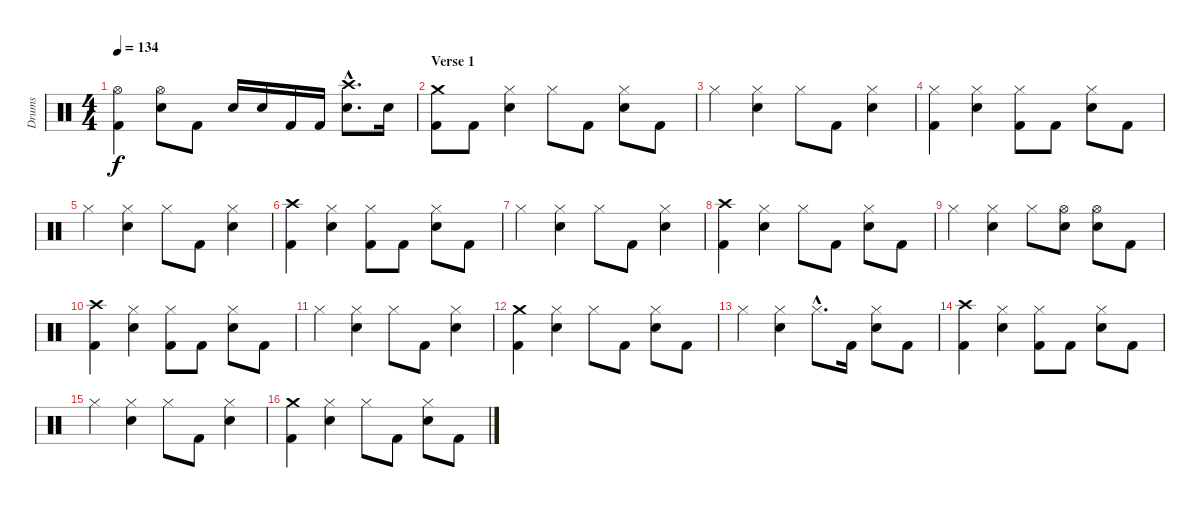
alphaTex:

\track ("Drums" "Drums") {instrument percussion}
\staff {score}
\articulation defaults
\ts (4 4)
\tempo 134
\clef neutral
\ks c
("Hi-Hat (open)" "Kick (hit) 2").4{dy f} ("Hi-Hat (open)" "Snare (hit) 2").8 "Kick (hit) 2".8 "Snare (hit) 2".16 "Snare (hit) 2".16 "Kick (hit) 2".16 "Kick (hit) 2".16 ("Crash high (hit)"{hac} "Snare (hit) 2"{hac}).8{d} "Snare (hit) 2".16 |
\section ("" "Verse 1")
("Crash medium (hit)" "Kick (hit) 2").8 "Kick (hit) 2".8 ("Hi-Hat (closed)" "Snare (hit) 2").4 "Hi-Hat (closed)".8 "Kick (hit) 2".8 ("Hi-Hat (closed)" "Snare (hit) 2").8 "Kick (hit) 2".8 |
"Hi-Hat (closed)".4 ("Hi-Hat (closed)" "Snare (hit) 2").4 "Hi-Hat (closed)".8 "Kick (hit) 2".8 ("Hi-Hat (closed)" "Snare (hit) 2").4 |
("Hi-Hat (closed)" "Kick (hit) 2").4 ("Hi-Hat (closed)" "Snare (hit) 2").4 ("Hi-Hat (closed)" "Kick (hit) 2").8 "Kick (hit) 2".8 ("Hi-Hat (closed)" "Snare (hit) 2").8 "Kick (hit) 2".8 |
"Hi-Hat (closed)".4 ("Hi-Hat (closed)" "Snare (hit) 2").4 "Hi-Hat (closed)".8 "Kick (hit) 2".8 ("Hi-Hat (closed)" "Snare (hit) 2").4 |
("Crash high (hit)" "Kick (hit) 2").4 ("Hi-Hat (closed)" "Snare (hit) 2").4 ("Hi-Hat (closed)" "Kick (hit) 2").8 "Kick (hit) 2".8 ("Hi-Hat (closed)" "Snare (hit) 2").8 "Kick (hit) 2".8 |
"Hi-Hat (closed)".4 ("Hi-Hat (closed)" "Snare (hit) 2").4 "Hi-Hat (closed)".8 "Kick (hit) 2".8 ("Hi-Hat (closed)" "Snare (hit) 2").4 |
("Crash high (hit)" "Kick (hit) 2").4 ("Hi-Hat (closed)" "Snare (hit) 2").4 "Hi-Hat (closed)".8 "Kick (hit) 2".8 ("Hi-Hat (closed)" "Snare (hit) 2").8 "Kick (hit) 2".8 |
"Hi-Hat (closed)".4 ("Hi-Hat (closed)" "Snare (hit) 2").4 "Hi-Hat (closed)".8 ("Hi-Hat (open)" "Snare (hit) 2").8 ("Hi-Hat (open)" "Snare (hit) 2").8 "Kick (hit) 2".8 |
("Crash high (hit)" "Kick (hit) 2").4 ("Hi-Hat (closed)" "Snare (hit) 2").4 ("Hi-Hat (closed)" "Kick (hit) 2").8 "Kick (hit) 2".8 ("Hi-Hat (closed)" "Snare (hit) 2").8 "Kick (hit) 2".8 |
"Hi-Hat (closed)".4 ("Hi-Hat (closed)" "Snare (hit) 2").4 "Hi-Hat (closed)".8 "Kick (hit) 2".8 ("Hi-Hat (closed)" "Snare (hit) 2").4 |
("Crash medium (hit)" "Kick (hit) 2").4 ("Hi-Hat (closed)" "Snare (hit) 2").4 "Hi-Hat (closed)".8 "Kick (hit) 2".8 ("Hi-Hat (closed)" "Snare (hit) 2").8 "Kick (hit) 2".8 |
"Hi-Hat (closed)".4 ("Hi-Hat (closed)" "Snare (hit) 2").4 "Hi-Hat (closed)"{hac}.8{d} "Kick (hit) 2".16 ("Hi-Hat (closed)" "Snare (hit) 2").8 "Kick (hit) 2".8 |
("Crash high (hit)" "Kick (hit) 2").4 ("Hi-Hat (closed)" "Snare (hit) 2").4 ("Hi-Hat (closed)" "Kick (hit) 2").8 "Kick (hit) 2".8 ("Hi-Hat (closed)" "Snare (hit) 2").8 "Kick (hit) 2".8 |
"Hi-Hat (closed)".4 ("Hi-Hat (closed)" "Snare (hit) 2").4 "Hi-Hat (closed)".8 "Kick (hit) 2".8 ("Hi-Hat (closed)" "Snare (hit) 2").4 |
("Crash medium (hit)" "Kick (hit) 2").4 ("Hi-Hat (closed)" "Snare (hit) 2").4 "Hi-Hat (closed)".8 "Kick (hit) 2".8 ("Hi-Hat (closed)" "Snare (hit) 2").8 "Kick (hit) 2".8
